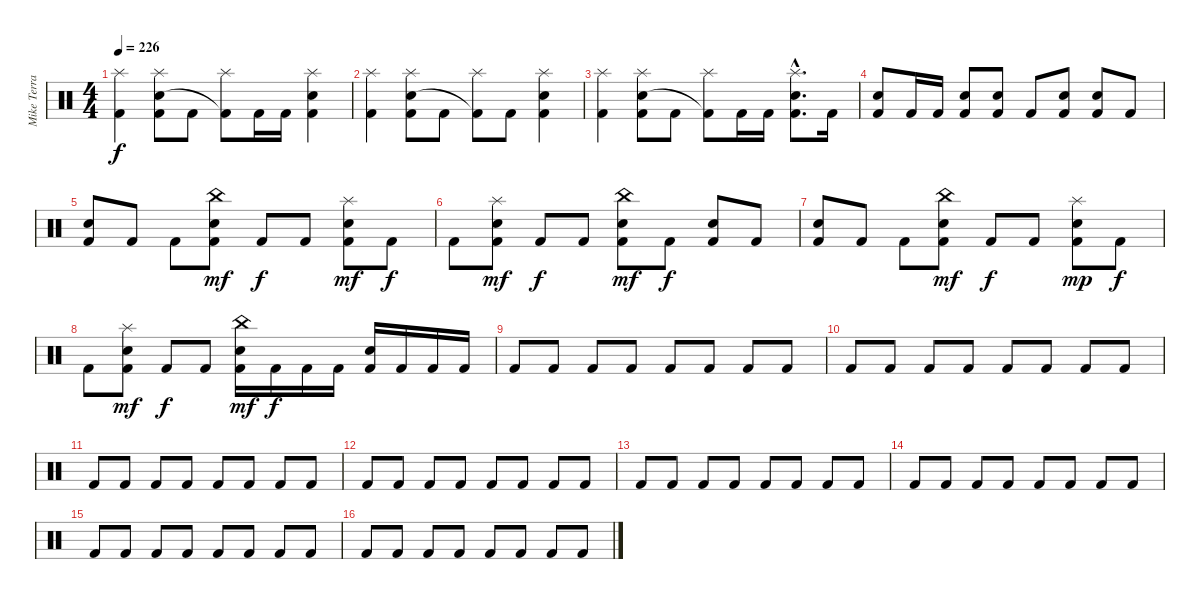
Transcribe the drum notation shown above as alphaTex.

\track ("Mike Terrana" "Mike Terra") {instrument percussion}
\staff {score}
\articulation defaults
\ts (4 4)
\tempo 226
\clef neutral
\ks c
("Splash (hit)" "Kick (hit) 2").4{dy f} ("Splash (hit)" "Snare (hit) 2" "Kick (hit) 2").8 "Kick (hit) 2".8 ("Splash (hit)" "Kick (hit) 2"{t}).8 "Kick (hit) 2".16 "Kick (hit) 2".16 ("Splash (hit)" "Snare (hit) 2" "Kick (hit) 2").4 |
("Splash (hit)" "Kick (hit) 2").4 ("Splash (hit)" "Snare (hit) 2" "Kick (hit) 2").8 "Kick (hit) 2".8 ("Splash (hit)" "Kick (hit) 2"{t}).8 "Kick (hit) 2".8 ("Splash (hit)" "Snare (hit) 2" "Kick (hit) 2").4 |
("Splash (hit)" "Kick (hit) 2").4 ("Splash (hit)" "Snare (hit) 2" "Kick (hit) 2").8 "Kick (hit) 2".8 ("Splash (hit)" "Kick (hit) 2"{t}).8 "Kick (hit) 2".16 "Kick (hit) 2".16 ("Splash (hit)"{hac} "Snare (hit) 2"{hac} "Kick (hit) 2"{hac}).8{d} "Kick (hit) 2".16 |
("Snare (hit) 2" "Kick (hit) 2").8 "Kick (hit) 2".16 "Kick (hit) 2".16 ("Snare (hit) 2" "Kick (hit) 2").8 ("Snare (hit) 2" "Kick (hit) 2").8 "Kick (hit) 2".8 ("Snare (hit) 2" "Kick (hit) 2").8 ("Snare (hit) 2" "Kick (hit) 2").8 "Kick (hit) 2".8 |
("Snare (hit) 2" "Kick (hit) 2").8 "Kick (hit) 2".8 "Kick (hit) 2".8 ("China (hit)" "Snare (hit) 2" "Kick (hit) 2").8{dy mf} "Kick (hit) 2".8{dy f} "Kick (hit) 2".8 ("Splash (hit)" "Snare (hit) 2" "Kick (hit) 2").8{dy mf} "Kick (hit) 2".8{dy f} |
"Kick (hit) 2".8 ("Splash (hit)" "Snare (hit) 2" "Kick (hit) 2").8{dy mf} "Kick (hit) 2".8{dy f} "Kick (hit) 2".8 ("China (hit)" "Snare (hit) 2" "Kick (hit) 2").8{dy mf} "Kick (hit) 2".8{dy f} ("Snare (hit) 2" "Kick (hit) 2").8 "Kick (hit) 2".8 |
("Snare (hit) 2" "Kick (hit) 2").8 "Kick (hit) 2".8 "Kick (hit) 2".8 ("China (hit)" "Snare (hit) 2" "Kick (hit) 2").8{dy mf} "Kick (hit) 2".8{dy f} "Kick (hit) 2".8 ("Splash (hit)" "Snare (hit) 2" "Kick (hit) 2").8{dy mp} "Kick (hit) 2".8{dy f} |
"Kick (hit) 2".8 ("Splash (hit)" "Snare (hit) 2" "Kick (hit) 2").8{dy mf} "Kick (hit) 2".8{dy f} "Kick (hit) 2".8 ("China (hit)" "Snare (hit) 2" "Kick (hit) 2").16{dy mf} "Kick (hit) 2".16{dy f} "Kick (hit) 2".16 "Kick (hit) 2".16 ("Snare (hit) 2" "Kick (hit) 2").16 "Kick (hit) 2".16 "Kick (hit) 2".16 "Kick (hit) 2".16 |
"Kick (hit) 2".8 "Kick (hit) 2".8 "Kick (hit) 2".8 "Kick (hit) 2".8 "Kick (hit) 2".8 "Kick (hit) 2".8 "Kick (hit) 2".8 "Kick (hit) 2".8 |
"Kick (hit) 2".8 "Kick (hit) 2".8 "Kick (hit) 2".8 "Kick (hit) 2".8 "Kick (hit) 2".8 "Kick (hit) 2".8 "Kick (hit) 2".8 "Kick (hit) 2".8 |
"Kick (hit) 2".8 "Kick (hit) 2".8 "Kick (hit) 2".8 "Kick (hit) 2".8 "Kick (hit) 2".8 "Kick (hit) 2".8 "Kick (hit) 2".8 "Kick (hit) 2".8 |
"Kick (hit) 2".8 "Kick (hit) 2".8 "Kick (hit) 2".8 "Kick (hit) 2".8 "Kick (hit) 2".8 "Kick (hit) 2".8 "Kick (hit) 2".8 "Kick (hit) 2".8 |
"Kick (hit) 2".8 "Kick (hit) 2".8 "Kick (hit) 2".8 "Kick (hit) 2".8 "Kick (hit) 2".8 "Kick (hit) 2".8 "Kick (hit) 2".8 "Kick (hit) 2".8 |
"Kick (hit) 2".8 "Kick (hit) 2".8 "Kick (hit) 2".8 "Kick (hit) 2".8 "Kick (hit) 2".8 "Kick (hit) 2".8 "Kick (hit) 2".8 "Kick (hit) 2".8 |
"Kick (hit) 2".8 "Kick (hit) 2".8 "Kick (hit) 2".8 "Kick (hit) 2".8 "Kick (hit) 2".8 "Kick (hit) 2".8 "Kick (hit) 2".8 "Kick (hit) 2".8 |
"Kick (hit) 2".8 "Kick (hit) 2".8 "Kick (hit) 2".8 "Kick (hit) 2".8 "Kick (hit) 2".8 "Kick (hit) 2".8 "Kick (hit) 2".8 "Kick (hit) 2".8
